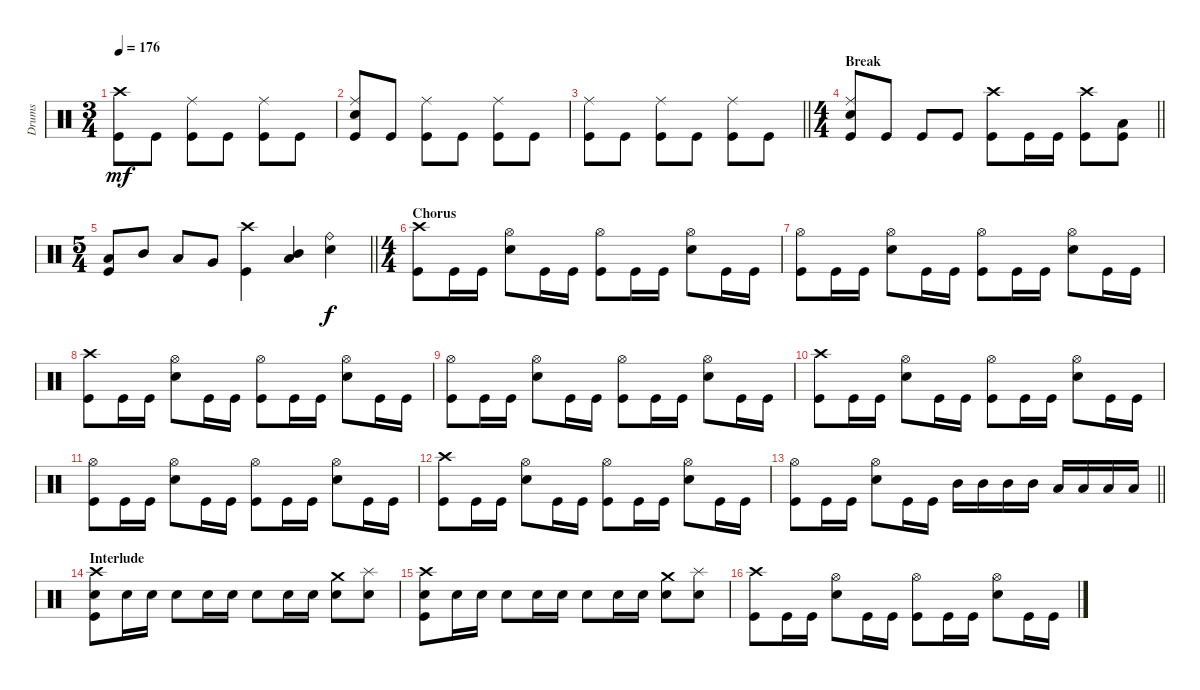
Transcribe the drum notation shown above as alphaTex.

\track ("Drums" "Drums") {instrument percussion}
\staff {score}
\articulation defaults
\ts (3 4)
\tempo 176
\clef neutral
\ks c
("Crash high (hit)" "Kick (hit)").8{dy mf} "Kick (hit)".8 ("Ride (middle)" "Kick (hit)").8 "Kick (hit)".8 ("Ride (middle)" "Kick (hit)").8 "Kick (hit)".8 |
("Ride (middle)" "Kick (hit)" "Snare (hit) 2").8 "Kick (hit)".8 ("Ride (middle)" "Kick (hit)").8 "Kick (hit)".8 ("Ride (middle)" "Kick (hit)").8 "Kick (hit)".8 |
\barLineRight lightlight
("Ride (middle)" "Kick (hit)").8 "Kick (hit)".8 ("Ride (middle)" "Kick (hit)").8 "Kick (hit)".8 ("Ride (middle)" "Kick (hit)").8 "Kick (hit)".8 |
\ts (4 4)
\section ("" "Break")
\barLineRight lightlight
("Ride (middle)" "Kick (hit)" "Snare (hit) 2").8 "Kick (hit)".8 "Kick (hit)".8 "Kick (hit)".8 ("Crash high (hit)" "Kick (hit)").8 "Kick (hit)".16 "Kick (hit)".16 ("Crash high (hit)" "Kick (hit)").8 ("Kick (hit)" "Low Tom (hit)").8 |
\ts (5 4)
\barLineRight lightlight
("Low Tom (hit)" "Kick (hit)").8 "Mid Tom (hit)".8 "Low Tom (hit)".8 "Very Low Tom (hit)".8 ("Crash high (hit)" "Kick (hit)").4 ("Low Tom (hit)" "Mid Tom (hit)").4 ("Snare (hit) 2" "Ride (bell)").4{dy f} |
\ts (4 4)
\section ("" "Chorus")
("Crash high (hit)" "Kick (hit)").8 "Kick (hit)".16 "Kick (hit)".16 ("Hi-Hat (open)" "Snare (hit) 2").8 "Kick (hit)".16 "Kick (hit)".16 ("Hi-Hat (open)" "Kick (hit)").8 "Kick (hit)".16 "Kick (hit)".16 ("Hi-Hat (open)" "Snare (hit) 2").8 "Kick (hit)".16 "Kick (hit)".16 |
("Hi-Hat (open)" "Kick (hit)").8 "Kick (hit)".16 "Kick (hit)".16 ("Hi-Hat (open)" "Snare (hit) 2").8 "Kick (hit)".16 "Kick (hit)".16 ("Hi-Hat (open)" "Kick (hit)").8 "Kick (hit)".16 "Kick (hit)".16 ("Hi-Hat (open)" "Snare (hit) 2").8 "Kick (hit)".16 "Kick (hit)".16 |
("Crash high (hit)" "Kick (hit)").8 "Kick (hit)".16 "Kick (hit)".16 ("Hi-Hat (open)" "Snare (hit) 2").8 "Kick (hit)".16 "Kick (hit)".16 ("Hi-Hat (open)" "Kick (hit)").8 "Kick (hit)".16 "Kick (hit)".16 ("Hi-Hat (open)" "Snare (hit) 2").8 "Kick (hit)".16 "Kick (hit)".16 |
("Hi-Hat (open)" "Kick (hit)").8 "Kick (hit)".16 "Kick (hit)".16 ("Hi-Hat (open)" "Snare (hit) 2").8 "Kick (hit)".16 "Kick (hit)".16 ("Hi-Hat (open)" "Kick (hit)").8 "Kick (hit)".16 "Kick (hit)".16 ("Hi-Hat (open)" "Snare (hit) 2").8 "Kick (hit)".16 "Kick (hit)".16 |
("Crash high (hit)" "Kick (hit)").8 "Kick (hit)".16 "Kick (hit)".16 ("Hi-Hat (open)" "Snare (hit) 2").8 "Kick (hit)".16 "Kick (hit)".16 ("Hi-Hat (open)" "Kick (hit)").8 "Kick (hit)".16 "Kick (hit)".16 ("Hi-Hat (open)" "Snare (hit) 2").8 "Kick (hit)".16 "Kick (hit)".16 |
("Hi-Hat (open)" "Kick (hit)").8 "Kick (hit)".16 "Kick (hit)".16 ("Hi-Hat (open)" "Snare (hit) 2").8 "Kick (hit)".16 "Kick (hit)".16 ("Hi-Hat (open)" "Kick (hit)").8 "Kick (hit)".16 "Kick (hit)".16 ("Hi-Hat (open)" "Snare (hit) 2").8 "Kick (hit)".16 "Kick (hit)".16 |
("Crash high (hit)" "Kick (hit)").8 "Kick (hit)".16 "Kick (hit)".16 ("Hi-Hat (open)" "Snare (hit) 2").8 "Kick (hit)".16 "Kick (hit)".16 ("Hi-Hat (open)" "Kick (hit)").8 "Kick (hit)".16 "Kick (hit)".16 ("Hi-Hat (open)" "Snare (hit) 2").8 "Kick (hit)".16 "Kick (hit)".16 |
\barLineRight lightlight
("Hi-Hat (open)" "Kick (hit)").8 "Kick (hit)".16 "Kick (hit)".16 ("Hi-Hat (open)" "Snare (hit) 2").8 "Kick (hit)".16 "Kick (hit)".16 "Mid Tom (hit)".16 "Mid Tom (hit)".16 "Mid Tom (hit)".16 "Mid Tom (hit)".16 "Low Tom (hit)".16 "Low Tom (hit)".16 "Low Tom (hit)".16 "Low Tom (hit)".16 |
\section ("" "Interlude")
("Crash high (hit)" "Kick (hit)" "Snare (hit) 2").8 "Snare (hit) 2".16 "Snare (hit) 2".16 "Snare (hit) 2".8 "Snare (hit) 2".16 "Snare (hit) 2".16 "Snare (hit) 2".8 "Snare (hit) 2".16 "Snare (hit) 2".16 ("Snare (hit) 2" "Crash medium (hit)").8 ("Snare (hit) 2" "Splash (hit)").8 |
("Crash high (hit)" "Kick (hit)" "Snare (hit) 2").8 "Snare (hit) 2".16 "Snare (hit) 2".16 "Snare (hit) 2".8 "Snare (hit) 2".16 "Snare (hit) 2".16 "Snare (hit) 2".8 "Snare (hit) 2".16 "Snare (hit) 2".16 ("Snare (hit) 2" "Crash medium (hit)").8 ("Snare (hit) 2" "Splash (hit)").8 |
("Crash high (hit)" "Kick (hit)").8 "Kick (hit)".16 "Kick (hit)".16 ("Snare (hit) 2" "Hi-Hat (open)").8 "Kick (hit)".16 "Kick (hit)".16 ("Kick (hit)" "Hi-Hat (open)").8 "Kick (hit)".16 "Kick (hit)".16 ("Snare (hit) 2" "Hi-Hat (open)").8 "Kick (hit)".16 "Kick (hit)".16
